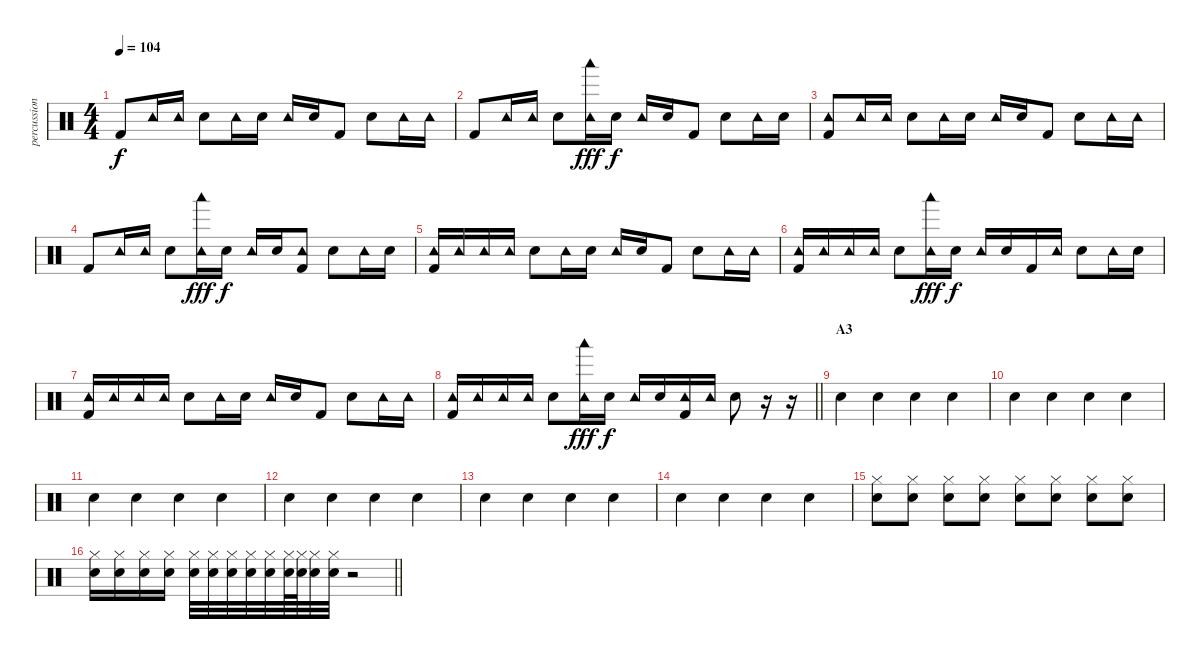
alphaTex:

\track ("percussion" "percussion") {instrument percussion}
\staff {score}
\articulation defaults
\ts (4 4)
\tempo 104
\clef neutral
\ks c "Kick (hit) 2".8{dy f} "Tambourine (hit)".16 "Tambourine (hit)".16 "Snare (hit) 2".8 "Tambourine (hit)".16 "Snare (hit) 2".16 "Tambourine (hit)".16 "Snare (hit) 2".16 "Kick (hit) 2".8 "Snare (hit) 2".8 "Tambourine (hit)".16 "Tambourine (hit)".16
|
"Kick (hit) 2".8 "Tambourine (hit)".16 "Tambourine (hit)".16 "Snare (hit) 2".8 ("Woodblock low (hit)" "Tambourine (hit)").16{dy fff} "Snare (hit) 2".16{dy f} "Tambourine (hit)".16 "Snare (hit) 2".16 "Kick (hit) 2".8 "Snare (hit) 2".8 "Tambourine (hit)".16 "Snare (hit) 2".16 |
("Tambourine (hit)" "Kick (hit) 2").8 "Tambourine (hit)".16 "Tambourine (hit)".16 "Snare (hit) 2".8 "Tambourine (hit)".16 "Snare (hit) 2".16 "Tambourine (hit)".16 "Snare (hit) 2".16 "Kick (hit) 2".8 "Snare (hit) 2".8 "Tambourine (hit)".16 "Tambourine (hit)".16 |
"Kick (hit) 2".8 "Tambourine (hit)".16 "Tambourine (hit)".16 "Snare (hit) 2".8 ("Woodblock low (hit)" "Tambourine (hit)").16{dy fff} "Snare (hit) 2".16{dy f} "Tambourine (hit)".16 "Snare (hit) 2".16 ("Tambourine (hit)" "Kick (hit) 2").8 "Snare (hit) 2".8 "Tambourine (hit)".16 "Snare (hit) 2".16 |
("Tambourine (hit)" "Kick (hit) 2").16 "Tambourine (hit)".16 "Tambourine (hit)".16 "Tambourine (hit)".16 "Snare (hit) 2".8 "Tambourine (hit)".16 "Snare (hit) 2".16 "Tambourine (hit)".16 "Snare (hit) 2".16 "Kick (hit) 2".8 "Snare (hit) 2".8 "Tambourine (hit)".16 "Tambourine (hit)".16 |
("Tambourine (hit)" "Kick (hit) 2").16 "Tambourine (hit)".16 "Tambourine (hit)".16 "Tambourine (hit)".16 "Snare (hit) 2".8 ("Woodblock low (hit)" "Tambourine (hit)").16{dy fff} "Snare (hit) 2".16{dy f} "Tambourine (hit)".16 "Snare (hit) 2".16 "Kick (hit) 2".16 "Tambourine (hit)".16 "Snare (hit) 2".8 "Tambourine (hit)".16 "Snare (hit) 2".16 |
("Tambourine (hit)" "Kick (hit) 2").16 "Tambourine (hit)".16 "Tambourine (hit)".16 "Tambourine (hit)".16 "Snare (hit) 2".8 "Tambourine (hit)".16 "Snare (hit) 2".16 "Tambourine (hit)".16 "Snare (hit) 2".16 "Kick (hit) 2".8 "Snare (hit) 2".8 "Tambourine (hit)".16 "Tambourine (hit)".16 |
\barLineRight lightlight
("Tambourine (hit)" "Kick (hit) 2").16 "Tambourine (hit)".16 "Tambourine (hit)".16 "Tambourine (hit)".16 "Snare (hit) 2".8 ("Woodblock low (hit)" "Tambourine (hit)").16{dy fff} "Snare (hit) 2".16{dy f} "Tambourine (hit)".16 "Snare (hit) 2".16 ("Tambourine (hit)" "Kick (hit) 2").16 "Tambourine (hit)".16 "Snare (hit) 2".8 r.16 r.16 |
\section ("" "A3")
"Hand Clap (hit)".4 "Hand Clap (hit)".4 "Hand Clap (hit)".4 "Hand Clap (hit)".4 |
"Hand Clap (hit)".4 "Hand Clap (hit)".4 "Hand Clap (hit)".4 "Hand Clap (hit)".4 |
"Hand Clap (hit)".4 "Hand Clap (hit)".4 "Hand Clap (hit)".4 "Hand Clap (hit)".4 |
"Hand Clap (hit)".4 "Hand Clap (hit)".4 "Hand Clap (hit)".4 "Hand Clap (hit)".4 |
"Hand Clap (hit)".4 "Hand Clap (hit)".4 "Hand Clap (hit)".4 "Hand Clap (hit)".4 |
"Hand Clap (hit)".4 "Hand Clap (hit)".4 "Hand Clap (hit)".4 "Hand Clap (hit)".4 |
("Snare (hit) 2" "Hi-Hat (closed)").8 ("Snare (hit) 2" "Hi-Hat (closed)").8 ("Snare (hit) 2" "Hi-Hat (closed)").8 ("Snare (hit) 2" "Hi-Hat (closed)").8 ("Snare (hit) 2" "Hi-Hat (closed)").8 ("Snare (hit) 2" "Hi-Hat (closed)").8 ("Snare (hit) 2" "Hi-Hat (closed)").8 ("Snare (hit) 2" "Hi-Hat (closed)").8 |
\barLineRight lightlight
("Snare (hit) 2" "Hi-Hat (closed)").16 ("Snare (hit) 2" "Hi-Hat (closed)").16 ("Snare (hit) 2" "Hi-Hat (closed)").16 ("Snare (hit) 2" "Hi-Hat (closed)").16 ("Snare (hit) 2" "Hi-Hat (closed)").32 ("Snare (hit) 2" "Hi-Hat (closed)").32 ("Snare (hit) 2" "Hi-Hat (closed)").32 ("Snare (hit) 2" "Hi-Hat (closed)").32{beam merge} ("Snare (hit) 2" "Hi-Hat (closed)").32 ("Snare (hit) 2" "Hi-Hat (closed)").64 ("Snare (hit) 2" "Hi-Hat (closed)").64 ("Snare (hit) 2" "Hi-Hat (closed)").32 ("Snare (hit) 2" "Hi-Hat (closed)").32 r.2
